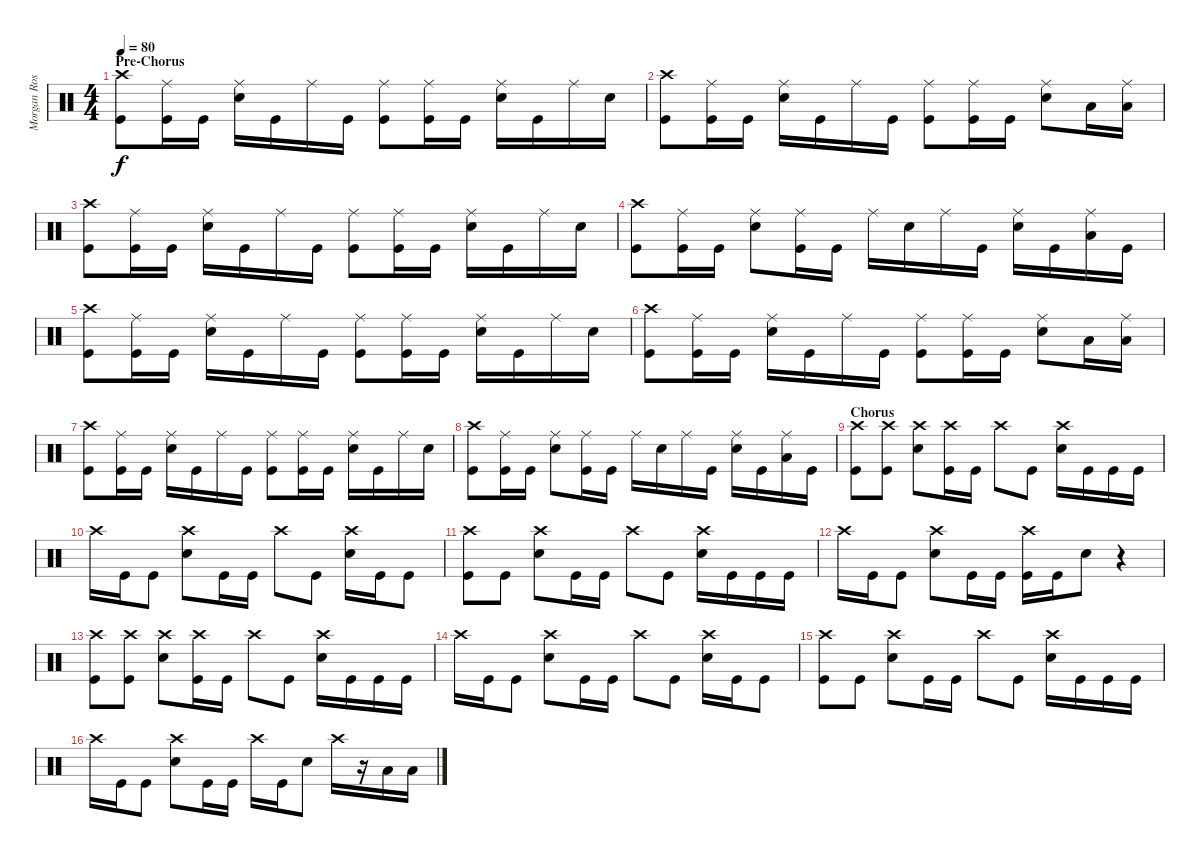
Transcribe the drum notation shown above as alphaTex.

\track ("Morgan Rose" "Morgan Ros") {instrument percussion}
\staff {score}
\articulation defaults
\ts (4 4)
\section ("" "Pre-Chorus")
\tempo 80
\clef neutral
\ks c
("Crash high (hit)" "Kick (hit)").8{dy f} ("Ride (middle)" "Kick (hit)").16 "Kick (hit)".16 ("Ride (middle)" "Snare (hit) 2").16 "Kick (hit)".16 "Ride (middle)".16 "Kick (hit)".16 ("Ride (middle)" "Kick (hit)").8 ("Ride (middle)" "Kick (hit)").16 "Kick (hit)".16 ("Ride (middle)" "Snare (hit) 2").16 "Kick (hit)".16 "Ride (middle)".16 "Snare (hit) 2".16 |
("Crash high (hit)" "Kick (hit)").8 ("Ride (middle)" "Kick (hit)").16 "Kick (hit)".16 ("Ride (middle)" "Snare (hit) 2").16 "Kick (hit)".16 "Ride (middle)".16 "Kick (hit)".16 ("Ride (middle)" "Kick (hit)").8 ("Ride (middle)" "Kick (hit)").16 "Kick (hit)".16 ("Ride (middle)" "Snare (hit) 2").8 "Low Tom (hit)".16 ("Ride (middle)" "Low Tom (hit)").16 |
("Crash high (hit)" "Kick (hit)").8 ("Ride (middle)" "Kick (hit)").16 "Kick (hit)".16 ("Ride (middle)" "Snare (hit) 2").16 "Kick (hit)".16 "Ride (middle)".16 "Kick (hit)".16 ("Ride (middle)" "Kick (hit)").8 ("Ride (middle)" "Kick (hit)").16 "Kick (hit)".16 ("Ride (middle)" "Snare (hit) 2").16 "Kick (hit)".16 "Ride (middle)".16 "Snare (hit) 2".16 |
("Crash high (hit)" "Kick (hit)").8 ("Ride (middle)" "Kick (hit)").16 "Kick (hit)".16 ("Ride (middle)" "Snare (hit) 2").8 ("Ride (middle)" "Kick (hit)").16 "Kick (hit)".16 "Ride (middle)".16 "Snare (hit) 2".16 "Ride (middle)".16 "Kick (hit)".16 ("Ride (middle)" "Snare (hit) 2").16 "Kick (hit)".16 ("Ride (middle)" "Low Tom (hit)").16 "Kick (hit)".16 |
("Crash high (hit)" "Kick (hit)").8 ("Ride (middle)" "Kick (hit)").16 "Kick (hit)".16 ("Ride (middle)" "Snare (hit) 2").16 "Kick (hit)".16 "Ride (middle)".16 "Kick (hit)".16 ("Ride (middle)" "Kick (hit)").8 ("Ride (middle)" "Kick (hit)").16 "Kick (hit)".16 ("Ride (middle)" "Snare (hit) 2").16 "Kick (hit)".16 "Ride (middle)".16 "Snare (hit) 2".16 |
("Crash high (hit)" "Kick (hit)").8 ("Ride (middle)" "Kick (hit)").16 "Kick (hit)".16 ("Ride (middle)" "Snare (hit) 2").16 "Kick (hit)".16 "Ride (middle)".16 "Kick (hit)".16 ("Ride (middle)" "Kick (hit)").8 ("Ride (middle)" "Kick (hit)").16 "Kick (hit)".16 ("Ride (middle)" "Snare (hit) 2").8 "Low Tom (hit)".16 ("Ride (middle)" "Low Tom (hit)").16 |
("Crash high (hit)" "Kick (hit)").8 ("Ride (middle)" "Kick (hit)").16 "Kick (hit)".16 ("Ride (middle)" "Snare (hit) 2").16 "Kick (hit)".16 "Ride (middle)".16 "Kick (hit)".16 ("Ride (middle)" "Kick (hit)").8 ("Ride (middle)" "Kick (hit)").16 "Kick (hit)".16 ("Ride (middle)" "Snare (hit) 2").16 "Kick (hit)".16 "Ride (middle)".16 "Snare (hit) 2".16 |
("Crash high (hit)" "Kick (hit)").8 ("Ride (middle)" "Kick (hit)").16 "Kick (hit)".16 ("Ride (middle)" "Snare (hit) 2").8 ("Ride (middle)" "Kick (hit)").16 "Kick (hit)".16 "Ride (middle)".16 "Snare (hit) 2".16 "Ride (middle)".16 "Kick (hit)".16 ("Ride (middle)" "Snare (hit) 2").16 "Kick (hit)".16 ("Ride (middle)" "Low Tom (hit)").16 "Kick (hit)".16 |
\section ("" "Chorus")
("Crash high (hit)" "Kick (hit)").8 ("Crash high (hit)" "Kick (hit)").8 ("Crash high (hit)" "Snare (hit) 2").8 ("Crash high (hit)" "Kick (hit)").16 "Kick (hit)".16 "Crash high (hit)".8 "Kick (hit)".8 ("Crash high (hit)" "Snare (hit) 2").16 "Kick (hit)".16 "Kick (hit)".16 "Kick (hit)".16 |
"Crash high (hit)".16 "Kick (hit)".16 "Kick (hit)".8 ("Crash high (hit)" "Snare (hit) 2").8 "Kick (hit)".16 "Kick (hit)".16 "Crash high (hit)".8 "Kick (hit)".8 ("Crash high (hit)" "Snare (hit) 2").16 "Kick (hit)".16 "Kick (hit)".8 |
("Crash high (hit)" "Kick (hit)").8 "Kick (hit)".8 ("Crash high (hit)" "Snare (hit) 2").8 "Kick (hit)".16 "Kick (hit)".16 "Crash high (hit)".8 "Kick (hit)".8 ("Crash high (hit)" "Snare (hit) 2").16 "Kick (hit)".16 "Kick (hit)".16 "Kick (hit)".16 |
"Crash high (hit)".16 "Kick (hit)".16 "Kick (hit)".8 ("Crash high (hit)" "Snare (hit) 2").8 "Kick (hit)".16 "Kick (hit)".16 ("Crash high (hit)" "Kick (hit)").16 "Kick (hit)".16 "Snare (hit) 2".8 r.4 |
("Crash high (hit)" "Kick (hit)").8 ("Crash high (hit)" "Kick (hit)").8 ("Crash high (hit)" "Snare (hit) 2").8 ("Crash high (hit)" "Kick (hit)").16 "Kick (hit)".16 "Crash high (hit)".8 "Kick (hit)".8 ("Crash high (hit)" "Snare (hit) 2").16 "Kick (hit)".16 "Kick (hit)".16 "Kick (hit)".16 |
"Crash high (hit)".16 "Kick (hit)".16 "Kick (hit)".8 ("Crash high (hit)" "Snare (hit) 2").8 "Kick (hit)".16 "Kick (hit)".16 "Crash high (hit)".8 "Kick (hit)".8 ("Crash high (hit)" "Snare (hit) 2").16 "Kick (hit)".16 "Kick (hit)".8 |
("Crash high (hit)" "Kick (hit)").8 "Kick (hit)".8 ("Crash high (hit)" "Snare (hit) 2").8 "Kick (hit)".16 "Kick (hit)".16 "Crash high (hit)".8 "Kick (hit)".8 ("Crash high (hit)" "Snare (hit) 2").16 "Kick (hit)".16 "Kick (hit)".16 "Kick (hit)".16 |
"Crash high (hit)".16 "Kick (hit)".16 "Kick (hit)".8 ("Crash high (hit)" "Snare (hit) 2").8 "Kick (hit)".16 "Kick (hit)".16 "Crash high (hit)".16 "Kick (hit)".16 "Snare (hit) 2".8 "Crash high (hit)".16 r.16 "Low Tom (hit)".16 "Low Tom (hit)".16
